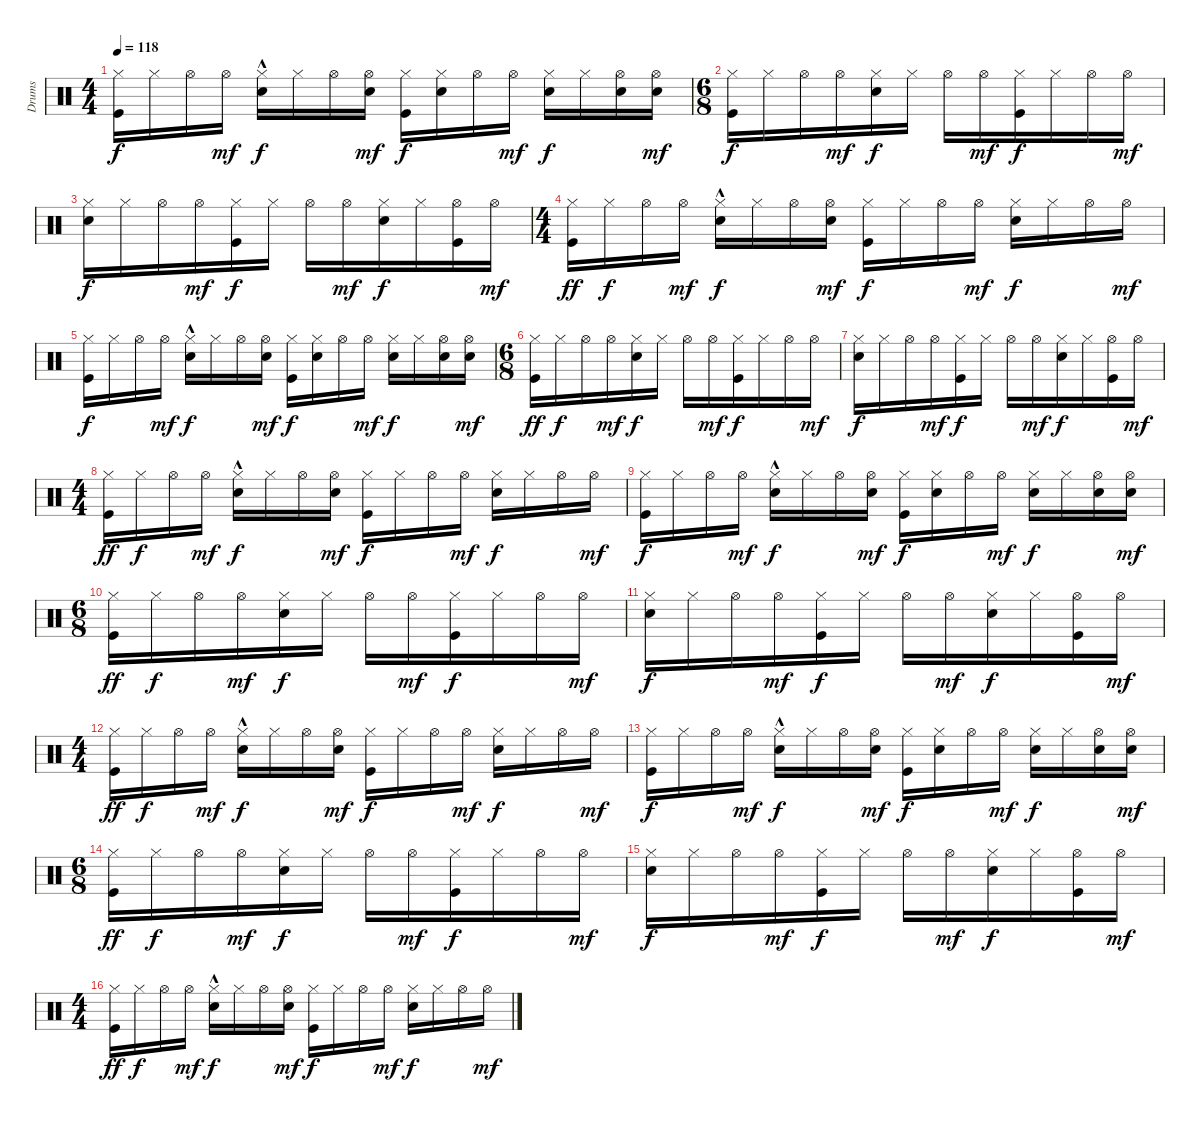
\track ("Drums" "Drums") {instrument percussion}
\staff {score}
\articulation defaults
\ts (4 4)
\tempo 118
\clef neutral
\ks c
("Kick (hit)" "Hi-Hat (closed)").16{dy f} "Hi-Hat (closed)".16 "Hi-Hat (open)".16 "Hi-Hat (open)".16{dy mf} ("Electric Snare (hit)"{hac} "Hi-Hat (closed)").16{dy f} "Hi-Hat (closed)".16 "Hi-Hat (open)".16 ("Hi-Hat (open)" "Electric Snare (hit)").16{dy mf} ("Hi-Hat (closed)" "Kick (hit)").16{dy f} ("Electric Snare (hit)" "Hi-Hat (closed)").16 "Hi-Hat (open)".16 "Hi-Hat (open)".16{dy mf} ("Electric Snare (hit)" "Hi-Hat (closed)").16{dy f} "Hi-Hat (closed)".16 ("Electric Snare (hit)" "Hi-Hat (open)").16 ("Electric Snare (hit)" "Hi-Hat (open)").16{dy mf} |
\ts (6 8)
("Hi-Hat (closed)" "Kick (hit)").16{dy f} "Hi-Hat (closed)".16 "Hi-Hat (open)".16 "Hi-Hat (open)".16{dy mf} ("Electric Snare (hit)" "Hi-Hat (closed)").16{dy f} "Hi-Hat (closed)".16 "Hi-Hat (open)".16 "Hi-Hat (open)".16{dy mf} ("Kick (hit)" "Hi-Hat (closed)").16{dy f} "Hi-Hat (closed)".16 "Hi-Hat (open)".16 "Hi-Hat (open)".16{dy mf} |
("Electric Snare (hit)" "Hi-Hat (closed)").16{dy f} "Hi-Hat (closed)".16 "Hi-Hat (open)".16 "Hi-Hat (open)".16{dy mf} ("Kick (hit)" "Hi-Hat (closed)").16{dy f} "Hi-Hat (closed)".16 "Hi-Hat (open)".16 "Hi-Hat (open)".16{dy mf} ("Electric Snare (hit)" "Hi-Hat (closed)").16{dy f} "Hi-Hat (closed)".16 ("Kick (hit)" "Hi-Hat (open)").16 "Hi-Hat (open)".16{dy mf} |
\ts (4 4)
("Kick (hit)" "Hi-Hat (closed)").16{dy ff} "Hi-Hat (closed)".16{dy f} "Hi-Hat (open)".16 "Hi-Hat (open)".16{dy mf} ("Electric Snare (hit)"{hac} "Hi-Hat (closed)").16{dy f} "Hi-Hat (closed)".16 "Hi-Hat (open)".16 ("Hi-Hat (open)" "Electric Snare (hit)").16{dy mf} ("Hi-Hat (closed)" "Kick (hit)").16{dy f} "Hi-Hat (closed)".16 "Hi-Hat (open)".16 "Hi-Hat (open)".16{dy mf} ("Electric Snare (hit)" "Hi-Hat (closed)").16{dy f} "Hi-Hat (closed)".16 "Hi-Hat (open)".16 "Hi-Hat (open)".16{dy mf} |
("Kick (hit)" "Hi-Hat (closed)").16{dy f} "Hi-Hat (closed)".16 "Hi-Hat (open)".16 "Hi-Hat (open)".16{dy mf} ("Electric Snare (hit)"{hac} "Hi-Hat (closed)").16{dy f} "Hi-Hat (closed)".16 "Hi-Hat (open)".16 ("Hi-Hat (open)" "Electric Snare (hit)").16{dy mf} ("Hi-Hat (closed)" "Kick (hit)").16{dy f} ("Electric Snare (hit)" "Hi-Hat (closed)").16 "Hi-Hat (open)".16 "Hi-Hat (open)".16{dy mf} ("Electric Snare (hit)" "Hi-Hat (closed)").16{dy f} "Hi-Hat (closed)".16 ("Electric Snare (hit)" "Hi-Hat (open)").16 ("Electric Snare (hit)" "Hi-Hat (open)").16{dy mf} |
\ts (6 8)
("Hi-Hat (closed)" "Kick (hit)").16{dy ff} "Hi-Hat (closed)".16{dy f} "Hi-Hat (open)".16 "Hi-Hat (open)".16{dy mf} ("Electric Snare (hit)" "Hi-Hat (closed)").16{dy f} "Hi-Hat (closed)".16 "Hi-Hat (open)".16 "Hi-Hat (open)".16{dy mf} ("Kick (hit)" "Hi-Hat (closed)").16{dy f} "Hi-Hat (closed)".16 "Hi-Hat (open)".16 "Hi-Hat (open)".16{dy mf} |
("Electric Snare (hit)" "Hi-Hat (closed)").16{dy f} "Hi-Hat (closed)".16 "Hi-Hat (open)".16 "Hi-Hat (open)".16{dy mf} ("Kick (hit)" "Hi-Hat (closed)").16{dy f} "Hi-Hat (closed)".16 "Hi-Hat (open)".16 "Hi-Hat (open)".16{dy mf} ("Electric Snare (hit)" "Hi-Hat (closed)").16{dy f} "Hi-Hat (closed)".16 ("Kick (hit)" "Hi-Hat (open)").16 "Hi-Hat (open)".16{dy mf} |
\ts (4 4)
("Kick (hit)" "Hi-Hat (closed)").16{dy ff} "Hi-Hat (closed)".16{dy f} "Hi-Hat (open)".16 "Hi-Hat (open)".16{dy mf} ("Electric Snare (hit)"{hac} "Hi-Hat (closed)").16{dy f} "Hi-Hat (closed)".16 "Hi-Hat (open)".16 ("Hi-Hat (open)" "Electric Snare (hit)").16{dy mf} ("Hi-Hat (closed)" "Kick (hit)").16{dy f} "Hi-Hat (closed)".16 "Hi-Hat (open)".16 "Hi-Hat (open)".16{dy mf} ("Electric Snare (hit)" "Hi-Hat (closed)").16{dy f} "Hi-Hat (closed)".16 "Hi-Hat (open)".16 "Hi-Hat (open)".16{dy mf} |
("Kick (hit)" "Hi-Hat (closed)").16{dy f} "Hi-Hat (closed)".16 "Hi-Hat (open)".16 "Hi-Hat (open)".16{dy mf} ("Electric Snare (hit)"{hac} "Hi-Hat (closed)").16{dy f} "Hi-Hat (closed)".16 "Hi-Hat (open)".16 ("Hi-Hat (open)" "Electric Snare (hit)").16{dy mf} ("Hi-Hat (closed)" "Kick (hit)").16{dy f} ("Electric Snare (hit)" "Hi-Hat (closed)").16 "Hi-Hat (open)".16 "Hi-Hat (open)".16{dy mf} ("Electric Snare (hit)" "Hi-Hat (closed)").16{dy f} "Hi-Hat (closed)".16 ("Electric Snare (hit)" "Hi-Hat (open)").16 ("Electric Snare (hit)" "Hi-Hat (open)").16{dy mf} |
\ts (6 8)
("Hi-Hat (closed)" "Kick (hit)").16{dy ff} "Hi-Hat (closed)".16{dy f} "Hi-Hat (open)".16 "Hi-Hat (open)".16{dy mf} ("Electric Snare (hit)" "Hi-Hat (closed)").16{dy f} "Hi-Hat (closed)".16 "Hi-Hat (open)".16 "Hi-Hat (open)".16{dy mf} ("Kick (hit)" "Hi-Hat (closed)").16{dy f} "Hi-Hat (closed)".16 "Hi-Hat (open)".16 "Hi-Hat (open)".16{dy mf} |
("Electric Snare (hit)" "Hi-Hat (closed)").16{dy f} "Hi-Hat (closed)".16 "Hi-Hat (open)".16 "Hi-Hat (open)".16{dy mf} ("Kick (hit)" "Hi-Hat (closed)").16{dy f} "Hi-Hat (closed)".16 "Hi-Hat (open)".16 "Hi-Hat (open)".16{dy mf} ("Electric Snare (hit)" "Hi-Hat (closed)").16{dy f} "Hi-Hat (closed)".16 ("Kick (hit)" "Hi-Hat (open)").16 "Hi-Hat (open)".16{dy mf} |
\ts (4 4)
("Kick (hit)" "Hi-Hat (closed)").16{dy ff} "Hi-Hat (closed)".16{dy f} "Hi-Hat (open)".16 "Hi-Hat (open)".16{dy mf} ("Electric Snare (hit)"{hac} "Hi-Hat (closed)").16{dy f} "Hi-Hat (closed)".16 "Hi-Hat (open)".16 ("Hi-Hat (open)" "Electric Snare (hit)").16{dy mf} ("Hi-Hat (closed)" "Kick (hit)").16{dy f} "Hi-Hat (closed)".16 "Hi-Hat (open)".16 "Hi-Hat (open)".16{dy mf} ("Electric Snare (hit)" "Hi-Hat (closed)").16{dy f} "Hi-Hat (closed)".16 "Hi-Hat (open)".16 "Hi-Hat (open)".16{dy mf} |
("Kick (hit)" "Hi-Hat (closed)").16{dy f} "Hi-Hat (closed)".16 "Hi-Hat (open)".16 "Hi-Hat (open)".16{dy mf} ("Electric Snare (hit)"{hac} "Hi-Hat (closed)").16{dy f} "Hi-Hat (closed)".16 "Hi-Hat (open)".16 ("Hi-Hat (open)" "Electric Snare (hit)").16{dy mf} ("Hi-Hat (closed)" "Kick (hit)").16{dy f} ("Electric Snare (hit)" "Hi-Hat (closed)").16 "Hi-Hat (open)".16 "Hi-Hat (open)".16{dy mf} ("Electric Snare (hit)" "Hi-Hat (closed)").16{dy f} "Hi-Hat (closed)".16 ("Electric Snare (hit)" "Hi-Hat (open)").16 ("Electric Snare (hit)" "Hi-Hat (open)").16{dy mf} |
\ts (6 8)
("Hi-Hat (closed)" "Kick (hit)").16{dy ff} "Hi-Hat (closed)".16{dy f} "Hi-Hat (open)".16 "Hi-Hat (open)".16{dy mf} ("Electric Snare (hit)" "Hi-Hat (closed)").16{dy f} "Hi-Hat (closed)".16 "Hi-Hat (open)".16 "Hi-Hat (open)".16{dy mf} ("Kick (hit)" "Hi-Hat (closed)").16{dy f} "Hi-Hat (closed)".16 "Hi-Hat (open)".16 "Hi-Hat (open)".16{dy mf} |
("Electric Snare (hit)" "Hi-Hat (closed)").16{dy f} "Hi-Hat (closed)".16 "Hi-Hat (open)".16 "Hi-Hat (open)".16{dy mf} ("Kick (hit)" "Hi-Hat (closed)").16{dy f} "Hi-Hat (closed)".16 "Hi-Hat (open)".16 "Hi-Hat (open)".16{dy mf} ("Electric Snare (hit)" "Hi-Hat (closed)").16{dy f} "Hi-Hat (closed)".16 ("Kick (hit)" "Hi-Hat (open)").16 "Hi-Hat (open)".16{dy mf} |
\ts (4 4)
("Kick (hit)" "Hi-Hat (closed)").16{dy ff} "Hi-Hat (closed)".16{dy f} "Hi-Hat (open)".16 "Hi-Hat (open)".16{dy mf} ("Electric Snare (hit)"{hac} "Hi-Hat (closed)").16{dy f} "Hi-Hat (closed)".16 "Hi-Hat (open)".16 ("Hi-Hat (open)" "Electric Snare (hit)").16{dy mf} ("Hi-Hat (closed)" "Kick (hit)").16{dy f} "Hi-Hat (closed)".16 "Hi-Hat (open)".16 "Hi-Hat (open)".16{dy mf} ("Electric Snare (hit)" "Hi-Hat (closed)").16{dy f} "Hi-Hat (closed)".16 "Hi-Hat (open)".16 "Hi-Hat (open)".16{dy mf}
